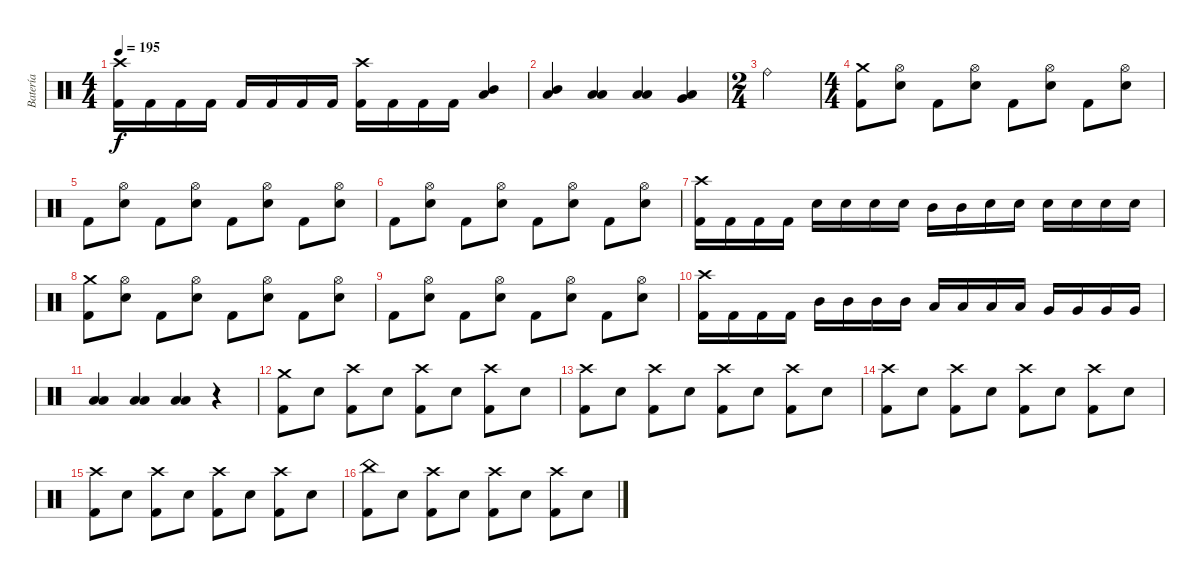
\track ("Batería" "Batería") {instrument percussion}
\staff {score}
\articulation defaults
\ts (4 4)
\tempo 195
\clef neutral
\ks c
("Crash high (hit)" "Kick (hit) 2").16{dy f} "Kick (hit) 2".16 "Kick (hit) 2".16 "Kick (hit) 2".16 "Kick (hit) 2".16 "Kick (hit) 2".16 "Kick (hit) 2".16 "Kick (hit) 2".16 ("Crash high (hit)" "Kick (hit) 2").16 "Kick (hit) 2".16 "Kick (hit) 2".16 "Kick (hit) 2".16 ("Mid Tom (hit)" "Low Floor Tom (hit)").4 |
("Mid Tom (hit)" "Low Floor Tom (hit)").4 ("Low Tom (hit)" "Low Floor Tom (hit)").4 ("Low Tom (hit)" "Low Floor Tom (hit)").4 ("Very Low Tom (hit)" "Low Floor Tom (hit)").4 |
\ts (2 4)
"Ride (bell)".2 |
\ts (4 4)
("Crash medium (hit)" "Kick (hit) 2").8 ("Hi-Hat (open)" "Snare (hit) 2").8 "Kick (hit) 2".8 ("Hi-Hat (open)" "Snare (hit) 2").8 "Kick (hit) 2".8 ("Hi-Hat (open)" "Snare (hit) 2").8 "Kick (hit) 2".8 ("Hi-Hat (open)" "Snare (hit) 2").8 |
"Kick (hit) 2".8 ("Hi-Hat (open)" "Snare (hit) 2").8 "Kick (hit) 2".8 ("Hi-Hat (open)" "Snare (hit) 2").8 "Kick (hit) 2".8 ("Hi-Hat (open)" "Snare (hit) 2").8 "Kick (hit) 2".8 ("Hi-Hat (open)" "Snare (hit) 2").8 |
"Kick (hit) 2".8 ("Hi-Hat (open)" "Snare (hit) 2").8 "Kick (hit) 2".8 ("Hi-Hat (open)" "Snare (hit) 2").8 "Kick (hit) 2".8 ("Hi-Hat (open)" "Snare (hit) 2").8 "Kick (hit) 2".8 ("Hi-Hat (open)" "Snare (hit) 2").8 |
("Crash high (hit)" "Kick (hit) 2").16 "Kick (hit) 2".16 "Kick (hit) 2".16 "Kick (hit) 2".16 "Snare (hit) 2".16 "Snare (hit) 2".16 "Snare (hit) 2".16 "Snare (hit) 2".16 "Mid Tom (hit)".16 "Mid Tom (hit)".16 "Snare (hit) 2".16 "Snare (hit) 2".16 "Snare (hit) 2".16 "Snare (hit) 2".16 "Snare (hit) 2".16 "Snare (hit) 2".16 |
("Crash medium (hit)" "Kick (hit) 2").8 ("Hi-Hat (open)" "Snare (hit) 2").8 "Kick (hit) 2".8 ("Hi-Hat (open)" "Snare (hit) 2").8 "Kick (hit) 2".8 ("Hi-Hat (open)" "Snare (hit) 2").8 "Kick (hit) 2".8 ("Hi-Hat (open)" "Snare (hit) 2").8 |
"Kick (hit) 2".8 ("Hi-Hat (open)" "Snare (hit) 2").8 "Kick (hit) 2".8 ("Hi-Hat (open)" "Snare (hit) 2").8 "Kick (hit) 2".8 ("Hi-Hat (open)" "Snare (hit) 2").8 "Kick (hit) 2".8 ("Hi-Hat (open)" "Snare (hit) 2").8 |
("Crash high (hit)" "Kick (hit) 2").16 "Kick (hit) 2".16 "Kick (hit) 2".16 "Kick (hit) 2".16 "Mid Tom (hit)".16 "Mid Tom (hit)".16 "Mid Tom (hit)".16 "Mid Tom (hit)".16 "Low Tom (hit)".16 "Low Tom (hit)".16 "Low Tom (hit)".16 "Low Tom (hit)".16 "Very Low Tom (hit)".16 "Very Low Tom (hit)".16 "Very Low Tom (hit)".16 "Very Low Tom (hit)".16 |
("Low Tom (hit)" "Low Floor Tom (hit)").4 ("Low Tom (hit)" "Low Floor Tom (hit)").4 ("Low Tom (hit)" "Low Floor Tom (hit)").4 r.4 |
("Crash medium (hit)" "Kick (hit) 2").8 "Snare (hit) 2".8 ("Crash high (hit)" "Kick (hit) 2").8 "Snare (hit) 2".8 ("Crash high (hit)" "Kick (hit) 2").8 "Snare (hit) 2".8 ("Crash high (hit)" "Kick (hit) 2").8 "Snare (hit) 2".8 |
("Crash high (hit)" "Kick (hit) 2").8 "Snare (hit) 2".8 ("Crash high (hit)" "Kick (hit) 2").8 "Snare (hit) 2".8 ("Crash high (hit)" "Kick (hit) 2").8 "Snare (hit) 2".8 ("Crash high (hit)" "Kick (hit) 2").8 "Snare (hit) 2".8 |
("Crash high (hit)" "Kick (hit) 2").8 "Snare (hit) 2".8 ("Crash high (hit)" "Kick (hit) 2").8 "Snare (hit) 2".8 ("Crash high (hit)" "Kick (hit) 2").8 "Snare (hit) 2".8 ("Crash high (hit)" "Kick (hit) 2").8 "Snare (hit) 2".8 |
("Crash high (hit)" "Kick (hit) 2").8 "Snare (hit) 2".8 ("Crash high (hit)" "Kick (hit) 2").8 "Snare (hit) 2".8 ("Crash high (hit)" "Kick (hit) 2").8 "Snare (hit) 2".8 ("Crash high (hit)" "Kick (hit) 2").8 "Snare (hit) 2".8 |
("China (hit)" "Kick (hit) 2").8 "Snare (hit) 2".8 ("Crash high (hit)" "Kick (hit) 2").8 "Snare (hit) 2".8 ("Crash high (hit)" "Kick (hit) 2").8 "Snare (hit) 2".8 ("Crash high (hit)" "Kick (hit) 2").8 "Snare (hit) 2".8
